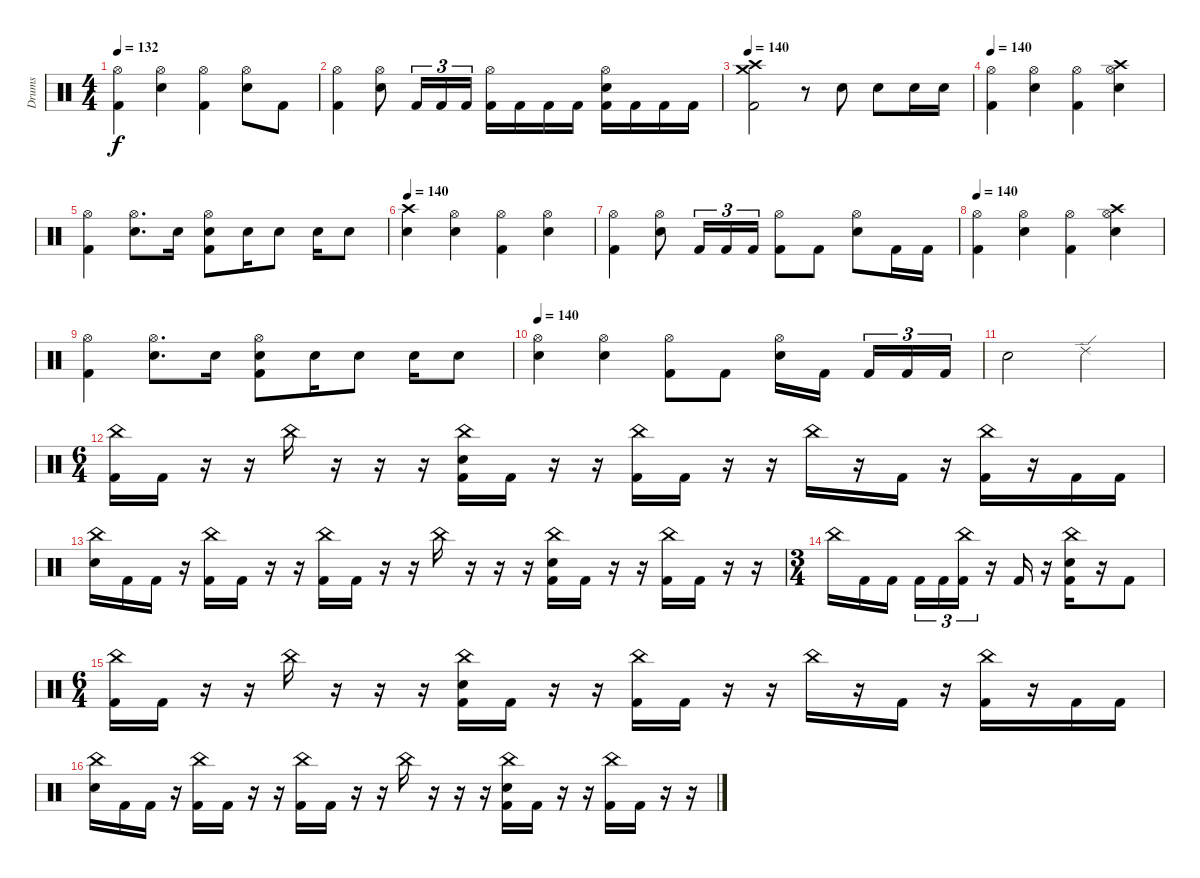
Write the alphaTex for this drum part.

\track ("Drums" "Drums") {instrument percussion}
\staff {score}
\articulation defaults
\ts (4 4)
\tempo 132
\clef neutral
\ks c
("Hi-Hat (open)" "Kick (hit) 2").4{dy f} ("Hi-Hat (open)" "Electric Snare (hit)").4 ("Hi-Hat (open)" "Kick (hit) 2").4 ("Hi-Hat (open)" "Electric Snare (hit)").8 "Kick (hit) 2".8 |
("Hi-Hat (open)" "Kick (hit) 2").4 ("Hi-Hat (open)" "Electric Snare (hit)").8 "Kick (hit) 2".16{tu (3 2)} "Kick (hit) 2".16{tu (3 2)} "Kick (hit) 2".16{tu (3 2)} ("Hi-Hat (open)" "Kick (hit) 2").16 "Kick (hit) 2".16 "Kick (hit) 2".16 "Kick (hit) 2".16 ("Hi-Hat (open)" "Electric Snare (hit)" "Kick (hit) 2").16 "Kick (hit) 2".16 "Kick (hit) 2".16 "Kick (hit) 2".16 |
\tempo 140
("Crash high (hit)" "Crash medium (hit)" "Kick (hit) 2").2 r.8 "Electric Snare (hit)".8 "Electric Snare (hit)".8 "Electric Snare (hit)".16 "Electric Snare (hit)".16 |
\tempo 140
("Hi-Hat (open)" "Kick (hit) 2").4 ("Hi-Hat (open)" "Electric Snare (hit)").4 ("Hi-Hat (open)" "Kick (hit) 2").4 ("Hi-Hat (open)" "Crash high (hit)" "Electric Snare (hit)").4 |
("Hi-Hat (open)" "Kick (hit) 2").4 ("Hi-Hat (open)" "Electric Snare (hit)").8{d} "Electric Snare (hit)".16 ("Hi-Hat (open)" "Electric Snare (hit)" "Kick (hit) 2").8 "Electric Snare (hit)".16 "Electric Snare (hit)".8 "Electric Snare (hit)".16 "Electric Snare (hit)".8 |
\tempo 140
("Crash high (hit)" "Electric Snare (hit)").4 ("Hi-Hat (open)" "Electric Snare (hit)").4 ("Hi-Hat (open)" "Kick (hit) 2").4 ("Hi-Hat (open)" "Electric Snare (hit)").4 |
("Hi-Hat (open)" "Kick (hit) 2").4 ("Hi-Hat (open)" "Electric Snare (hit)").8 "Kick (hit) 2".16{tu (3 2)} "Kick (hit) 2".16{tu (3 2)} "Kick (hit) 2".16{tu (3 2)} ("Hi-Hat (open)" "Kick (hit) 2").8 "Kick (hit) 2".8 ("Hi-Hat (open)" "Electric Snare (hit)").8 "Kick (hit) 2".16 "Kick (hit) 2".16 |
\tempo 140
("Hi-Hat (open)" "Kick (hit) 2").4 ("Hi-Hat (open)" "Electric Snare (hit)").4 ("Hi-Hat (open)" "Kick (hit) 2").4 ("Hi-Hat (open)" "Crash high (hit)" "Electric Snare (hit)").4 |
("Hi-Hat (open)" "Kick (hit) 2").4 ("Hi-Hat (open)" "Electric Snare (hit)").8{d} "Electric Snare (hit)".16 ("Hi-Hat (open)" "Electric Snare (hit)" "Kick (hit) 2").8 "Electric Snare (hit)".16 "Electric Snare (hit)".8 "Electric Snare (hit)".16 "Electric Snare (hit)".8 |
\tempo 140
("Hi-Hat (open)" "Electric Snare (hit)").4 ("Hi-Hat (open)" "Electric Snare (hit)").4 ("Hi-Hat (open)" "Kick (hit) 2").8 "Kick (hit) 2".8 ("Hi-Hat (open)" "Electric Snare (hit)").16 "Kick (hit) 2".16{beam splitsecondary} "Kick (hit) 2".16{tu (3 2)} "Kick (hit) 2".16{tu (3 2)} "Kick (hit) 2".16{tu (3 2)} |
"Electric Snare (hit)".2 "Ride (edge) 2".2 |
\ts (6 4)
("China (hit)" "Kick (hit) 2").16 "Kick (hit) 2".16 r.16 r.16 "China (hit)".16 r.16 r.16 r.16 ("China (hit)" "Electric Snare (hit)" "Kick (hit) 2").16 "Kick (hit) 2".16 r.16 r.16 ("China (hit)" "Kick (hit) 2").16 "Kick (hit) 2".16 r.16 r.16 "China (hit)".16 r.16 "Kick (hit) 2".16 r.16 ("China (hit)" "Kick (hit) 2").16 r.16 "Kick (hit) 2".16 "Kick (hit) 2".16 |
("China (hit)" "Electric Snare (hit)").16 "Kick (hit) 2".16 "Kick (hit) 2".16 r.16 ("China (hit)" "Kick (hit) 2").16 "Kick (hit) 2".16 r.16 r.16 ("China (hit)" "Kick (hit) 2").16 "Kick (hit) 2".16 r.16 r.16 "China (hit)".16 r.16 r.16 r.16 ("China (hit)" "Electric Snare (hit)" "Kick (hit) 2").16 "Kick (hit) 2".16 r.16 r.16 ("China (hit)" "Kick (hit) 2").16 "Kick (hit) 2".16 r.16 r.16 |
\ts (3 4)
"China (hit)".16 "Kick (hit) 2".16 "Kick (hit) 2".16{beam splitsecondary} "Kick (hit) 2".16{tu (3 2)} "Kick (hit) 2".16{tu (3 2)} ("China (hit)" "Kick (hit) 2").16{tu (3 2)} r.16 "Kick (hit) 2".16 r.16 ("China (hit)" "Electric Snare (hit)" "Kick (hit) 2").16 r.16 "Kick (hit) 2".8 |
\ts (6 4)
("China (hit)" "Kick (hit) 2").16 "Kick (hit) 2".16 r.16 r.16 "China (hit)".16 r.16 r.16 r.16 ("China (hit)" "Electric Snare (hit)" "Kick (hit) 2").16 "Kick (hit) 2".16 r.16 r.16 ("China (hit)" "Kick (hit) 2").16 "Kick (hit) 2".16 r.16 r.16 "China (hit)".16 r.16 "Kick (hit) 2".16 r.16 ("China (hit)" "Kick (hit) 2").16 r.16 "Kick (hit) 2".16 "Kick (hit) 2".16 |
("China (hit)" "Electric Snare (hit)").16 "Kick (hit) 2".16 "Kick (hit) 2".16 r.16 ("China (hit)" "Kick (hit) 2").16 "Kick (hit) 2".16 r.16 r.16 ("China (hit)" "Kick (hit) 2").16 "Kick (hit) 2".16 r.16 r.16 "China (hit)".16 r.16 r.16 r.16 ("China (hit)" "Electric Snare (hit)" "Kick (hit) 2").16 "Kick (hit) 2".16 r.16 r.16 ("China (hit)" "Kick (hit) 2").16 "Kick (hit) 2".16 r.16 r.16
